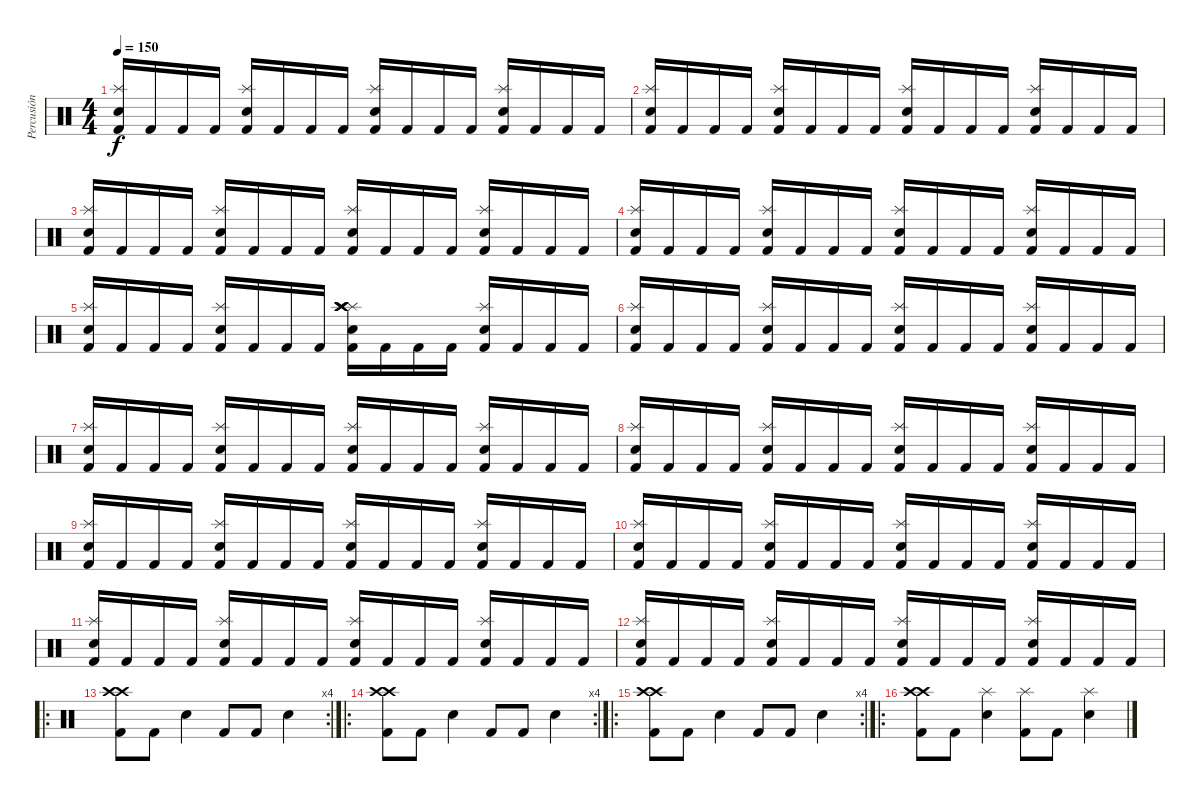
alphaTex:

\track ("Percusión" "Percusión") {instrument percussion}
\staff {score}
\articulation defaults
\ts (4 4)
\tempo 150
\clef neutral
\ks c
("Kick (hit) 2" "Splash (hit)" "Snare (hit) 2").16{dy f} "Kick (hit) 2".16 "Kick (hit) 2".16 "Kick (hit) 2".16 ("Kick (hit) 2" "Splash (hit)" "Snare (hit) 2").16 "Kick (hit) 2".16 "Kick (hit) 2".16 "Kick (hit) 2".16 ("Kick (hit) 2" "Splash (hit)" "Snare (hit) 2").16 "Kick (hit) 2".16 "Kick (hit) 2".16 "Kick (hit) 2".16 ("Kick (hit) 2" "Splash (hit)" "Snare (hit) 2").16 "Kick (hit) 2".16 "Kick (hit) 2".16 "Kick (hit) 2".16 |
("Kick (hit) 2" "Splash (hit)" "Snare (hit) 2").16 "Kick (hit) 2".16 "Kick (hit) 2".16 "Kick (hit) 2".16 ("Kick (hit) 2" "Splash (hit)" "Snare (hit) 2").16 "Kick (hit) 2".16 "Kick (hit) 2".16 "Kick (hit) 2".16 ("Kick (hit) 2" "Splash (hit)" "Snare (hit) 2").16 "Kick (hit) 2".16 "Kick (hit) 2".16 "Kick (hit) 2".16 ("Kick (hit) 2" "Splash (hit)" "Snare (hit) 2").16 "Kick (hit) 2".16 "Kick (hit) 2".16 "Kick (hit) 2".16 |
("Kick (hit) 2" "Splash (hit)" "Snare (hit) 2").16 "Kick (hit) 2".16 "Kick (hit) 2".16 "Kick (hit) 2".16 ("Kick (hit) 2" "Splash (hit)" "Snare (hit) 2").16 "Kick (hit) 2".16 "Kick (hit) 2".16 "Kick (hit) 2".16 ("Kick (hit) 2" "Splash (hit)" "Snare (hit) 2").16 "Kick (hit) 2".16 "Kick (hit) 2".16 "Kick (hit) 2".16 ("Kick (hit) 2" "Splash (hit)" "Snare (hit) 2").16 "Kick (hit) 2".16 "Kick (hit) 2".16 "Kick (hit) 2".16 |
("Kick (hit) 2" "Splash (hit)" "Snare (hit) 2").16 "Kick (hit) 2".16 "Kick (hit) 2".16 "Kick (hit) 2".16 ("Kick (hit) 2" "Splash (hit)" "Snare (hit) 2").16 "Kick (hit) 2".16 "Kick (hit) 2".16 "Kick (hit) 2".16 ("Kick (hit) 2" "Splash (hit)" "Snare (hit) 2").16 "Kick (hit) 2".16 "Kick (hit) 2".16 "Kick (hit) 2".16 ("Kick (hit) 2" "Splash (hit)" "Snare (hit) 2").16 "Kick (hit) 2".16 "Kick (hit) 2".16 "Kick (hit) 2".16 |
("Kick (hit) 2" "Splash (hit)" "Snare (hit) 2").16 "Kick (hit) 2".16 "Kick (hit) 2".16 "Kick (hit) 2".16 ("Kick (hit) 2" "Splash (hit)" "Snare (hit) 2").16 "Kick (hit) 2".16 "Kick (hit) 2".16 "Kick (hit) 2".16 ("Kick (hit) 2" "Splash (hit)" "Snare (hit) 2" "Crash high (hit)" "Crash high (hit)" "Crash high (hit)").16 "Kick (hit) 2".16 "Kick (hit) 2".16 "Kick (hit) 2".16 ("Kick (hit) 2" "Splash (hit)" "Snare (hit) 2").16 "Kick (hit) 2".16 "Kick (hit) 2".16 "Kick (hit) 2".16 |
("Kick (hit) 2" "Splash (hit)" "Snare (hit) 2").16 "Kick (hit) 2".16 "Kick (hit) 2".16 "Kick (hit) 2".16 ("Kick (hit) 2" "Splash (hit)" "Snare (hit) 2").16 "Kick (hit) 2".16 "Kick (hit) 2".16 "Kick (hit) 2".16 ("Kick (hit) 2" "Splash (hit)" "Snare (hit) 2").16 "Kick (hit) 2".16 "Kick (hit) 2".16 "Kick (hit) 2".16 ("Kick (hit) 2" "Splash (hit)" "Snare (hit) 2").16 "Kick (hit) 2".16 "Kick (hit) 2".16 "Kick (hit) 2".16 |
("Kick (hit) 2" "Splash (hit)" "Snare (hit) 2").16 "Kick (hit) 2".16 "Kick (hit) 2".16 "Kick (hit) 2".16 ("Kick (hit) 2" "Splash (hit)" "Snare (hit) 2").16 "Kick (hit) 2".16 "Kick (hit) 2".16 "Kick (hit) 2".16 ("Kick (hit) 2" "Splash (hit)" "Snare (hit) 2").16 "Kick (hit) 2".16 "Kick (hit) 2".16 "Kick (hit) 2".16 ("Kick (hit) 2" "Splash (hit)" "Snare (hit) 2").16 "Kick (hit) 2".16 "Kick (hit) 2".16 "Kick (hit) 2".16 |
("Kick (hit) 2" "Splash (hit)" "Snare (hit) 2").16 "Kick (hit) 2".16 "Kick (hit) 2".16 "Kick (hit) 2".16 ("Kick (hit) 2" "Splash (hit)" "Snare (hit) 2").16 "Kick (hit) 2".16 "Kick (hit) 2".16 "Kick (hit) 2".16 ("Kick (hit) 2" "Splash (hit)" "Snare (hit) 2").16 "Kick (hit) 2".16 "Kick (hit) 2".16 "Kick (hit) 2".16 ("Kick (hit) 2" "Splash (hit)" "Snare (hit) 2").16 "Kick (hit) 2".16 "Kick (hit) 2".16 "Kick (hit) 2".16 |
("Kick (hit) 2" "Splash (hit)" "Snare (hit) 2").16 "Kick (hit) 2".16 "Kick (hit) 2".16 "Kick (hit) 2".16 ("Kick (hit) 2" "Splash (hit)" "Snare (hit) 2").16 "Kick (hit) 2".16 "Kick (hit) 2".16 "Kick (hit) 2".16 ("Kick (hit) 2" "Splash (hit)" "Snare (hit) 2").16 "Kick (hit) 2".16 "Kick (hit) 2".16 "Kick (hit) 2".16 ("Kick (hit) 2" "Splash (hit)" "Snare (hit) 2").16 "Kick (hit) 2".16 "Kick (hit) 2".16 "Kick (hit) 2".16 |
("Kick (hit) 2" "Splash (hit)" "Snare (hit) 2").16 "Kick (hit) 2".16 "Kick (hit) 2".16 "Kick (hit) 2".16 ("Kick (hit) 2" "Splash (hit)" "Snare (hit) 2").16 "Kick (hit) 2".16 "Kick (hit) 2".16 "Kick (hit) 2".16 ("Kick (hit) 2" "Splash (hit)" "Snare (hit) 2").16 "Kick (hit) 2".16 "Kick (hit) 2".16 "Kick (hit) 2".16 ("Kick (hit) 2" "Splash (hit)" "Snare (hit) 2").16 "Kick (hit) 2".16 "Kick (hit) 2".16 "Kick (hit) 2".16 |
("Kick (hit) 2" "Splash (hit)" "Snare (hit) 2").16 "Kick (hit) 2".16 "Kick (hit) 2".16 "Kick (hit) 2".16 ("Kick (hit) 2" "Splash (hit)" "Snare (hit) 2").16 "Kick (hit) 2".16 "Kick (hit) 2".16 "Kick (hit) 2".16 ("Kick (hit) 2" "Splash (hit)" "Snare (hit) 2").16 "Kick (hit) 2".16 "Kick (hit) 2".16 "Kick (hit) 2".16 ("Kick (hit) 2" "Splash (hit)" "Snare (hit) 2").16 "Kick (hit) 2".16 "Kick (hit) 2".16 "Kick (hit) 2".16 |
("Kick (hit) 2" "Splash (hit)" "Snare (hit) 2").16 "Kick (hit) 2".16 "Kick (hit) 2".16 "Kick (hit) 2".16 ("Kick (hit) 2" "Splash (hit)" "Snare (hit) 2").16 "Kick (hit) 2".16 "Kick (hit) 2".16 "Kick (hit) 2".16 ("Kick (hit) 2" "Splash (hit)" "Snare (hit) 2").16 "Kick (hit) 2".16 "Kick (hit) 2".16 "Kick (hit) 2".16 ("Kick (hit) 2" "Splash (hit)" "Snare (hit) 2").16 "Kick (hit) 2".16 "Kick (hit) 2".16 "Kick (hit) 2".16 |
\ro
\rc 4
("Kick (hit) 2" "Crash high (hit)" "Crash high (hit)").8 "Kick (hit) 2".8 "Snare (hit) 2".4 "Kick (hit) 2".8 "Kick (hit) 2".8 "Snare (hit) 2".4 |
\ro
\rc 4
("Kick (hit) 2" "Crash high (hit)" "Crash high (hit)").8 "Kick (hit) 2".8 "Snare (hit) 2".4 "Kick (hit) 2".8 "Kick (hit) 2".8 "Snare (hit) 2".4 |
\ro
\rc 4
("Kick (hit) 2" "Crash high (hit)" "Crash high (hit)").8 "Kick (hit) 2".8 "Snare (hit) 2".4 "Kick (hit) 2".8 "Kick (hit) 2".8 "Snare (hit) 2".4 |
\ro
("Kick (hit) 2" "Crash high (hit)" "Crash high (hit)").8 "Kick (hit) 2".8 ("Snare (hit) 2" "Splash (hit)").4 ("Kick (hit) 2" "Splash (hit)").8 "Kick (hit) 2".8 ("Snare (hit) 2" "Splash (hit)").4
